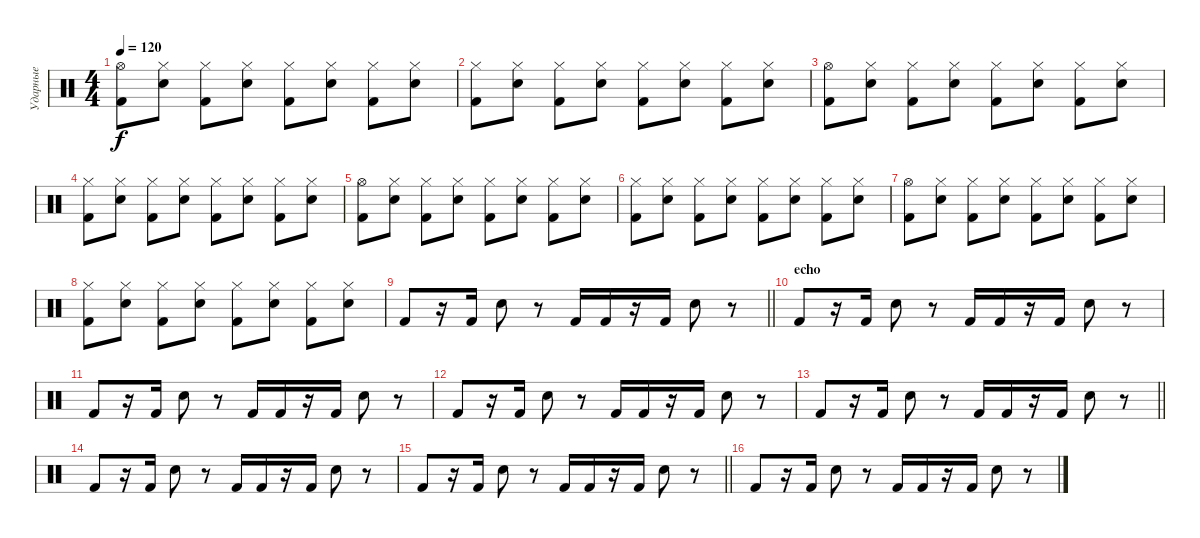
\track ("Ударные" "Ударные") {instrument percussion}
\staff {score}
\articulation defaults
\ts (4 4)
\tempo 120
\clef neutral
\ks c
("Kick (hit) 2" "Hi-Hat (open)").8{dy f} ("Electric Snare (hit)" "Hi-Hat (closed)").8 ("Kick (hit) 2" "Hi-Hat (closed)").8 ("Electric Snare (hit)" "Hi-Hat (closed)").8 ("Kick (hit) 2" "Hi-Hat (closed)").8 ("Electric Snare (hit)" "Hi-Hat (closed)").8 ("Kick (hit) 2" "Hi-Hat (closed)").8 ("Electric Snare (hit)" "Hi-Hat (closed)").8 |
("Kick (hit) 2" "Hi-Hat (closed)").8 ("Electric Snare (hit)" "Hi-Hat (closed)").8 ("Kick (hit) 2" "Hi-Hat (closed)").8 ("Electric Snare (hit)" "Hi-Hat (closed)").8 ("Kick (hit) 2" "Hi-Hat (closed)").8 ("Electric Snare (hit)" "Hi-Hat (closed)").8 ("Kick (hit) 2" "Hi-Hat (closed)").8 ("Electric Snare (hit)" "Hi-Hat (closed)").8 |
("Kick (hit) 2" "Hi-Hat (open)").8 ("Electric Snare (hit)" "Hi-Hat (closed)").8 ("Kick (hit) 2" "Hi-Hat (closed)").8 ("Electric Snare (hit)" "Hi-Hat (closed)").8 ("Kick (hit) 2" "Hi-Hat (closed)").8 ("Electric Snare (hit)" "Hi-Hat (closed)").8 ("Kick (hit) 2" "Hi-Hat (closed)").8 ("Electric Snare (hit)" "Hi-Hat (closed)").8 |
("Kick (hit) 2" "Hi-Hat (closed)").8 ("Electric Snare (hit)" "Hi-Hat (closed)").8 ("Kick (hit) 2" "Hi-Hat (closed)").8 ("Electric Snare (hit)" "Hi-Hat (closed)").8 ("Kick (hit) 2" "Hi-Hat (closed)").8 ("Electric Snare (hit)" "Hi-Hat (closed)").8 ("Kick (hit) 2" "Hi-Hat (closed)").8 ("Electric Snare (hit)" "Hi-Hat (closed)").8 |
("Kick (hit) 2" "Hi-Hat (open)").8 ("Electric Snare (hit)" "Hi-Hat (closed)").8 ("Kick (hit) 2" "Hi-Hat (closed)").8 ("Electric Snare (hit)" "Hi-Hat (closed)").8 ("Kick (hit) 2" "Hi-Hat (closed)").8 ("Electric Snare (hit)" "Hi-Hat (closed)").8 ("Kick (hit) 2" "Hi-Hat (closed)").8 ("Electric Snare (hit)" "Hi-Hat (closed)").8 |
("Kick (hit) 2" "Hi-Hat (closed)").8 ("Electric Snare (hit)" "Hi-Hat (closed)").8 ("Kick (hit) 2" "Hi-Hat (closed)").8 ("Electric Snare (hit)" "Hi-Hat (closed)").8 ("Kick (hit) 2" "Hi-Hat (closed)").8 ("Electric Snare (hit)" "Hi-Hat (closed)").8 ("Kick (hit) 2" "Hi-Hat (closed)").8 ("Electric Snare (hit)" "Hi-Hat (closed)").8 |
("Kick (hit) 2" "Hi-Hat (open)").8 ("Electric Snare (hit)" "Hi-Hat (closed)").8 ("Kick (hit) 2" "Hi-Hat (closed)").8 ("Electric Snare (hit)" "Hi-Hat (closed)").8 ("Kick (hit) 2" "Hi-Hat (closed)").8 ("Electric Snare (hit)" "Hi-Hat (closed)").8 ("Kick (hit) 2" "Hi-Hat (closed)").8 ("Electric Snare (hit)" "Hi-Hat (closed)").8 |
("Kick (hit) 2" "Hi-Hat (closed)").8 ("Electric Snare (hit)" "Hi-Hat (closed)").8 ("Kick (hit) 2" "Hi-Hat (closed)").8 ("Electric Snare (hit)" "Hi-Hat (closed)").8 ("Kick (hit) 2" "Hi-Hat (closed)").8 ("Electric Snare (hit)" "Hi-Hat (closed)").8 ("Kick (hit) 2" "Hi-Hat (closed)").8 ("Electric Snare (hit)" "Hi-Hat (closed)").8 |
\barLineRight lightlight "Kick (hit) 2".8
r.16 "Kick (hit) 2".16 "Snare (hit) 2".8 r.8 "Kick (hit) 2".16 "Kick (hit) 2".16 r.16 "Kick (hit) 2".16 "Snare (hit) 2".8 r.8 |
\section ("" "echo")
"Kick (hit) 2".8 r.16 "Kick (hit) 2".16 "Snare (hit) 2".8 r.8 "Kick (hit) 2".16 "Kick (hit) 2".16 r.16 "Kick (hit) 2".16 "Snare (hit) 2".8 r.8 |
"Kick (hit) 2".8 r.16 "Kick (hit) 2".16 "Snare (hit) 2".8 r.8 "Kick (hit) 2".16 "Kick (hit) 2".16 r.16 "Kick (hit) 2".16 "Snare (hit) 2".8 r.8 |
"Kick (hit) 2".8 r.16 "Kick (hit) 2".16 "Snare (hit) 2".8 r.8 "Kick (hit) 2".16 "Kick (hit) 2".16 r.16 "Kick (hit) 2".16 "Snare (hit) 2".8 r.8 |
\barLineRight lightlight "Kick (hit) 2".8
r.16 "Kick (hit) 2".16 "Snare (hit) 2".8 r.8 "Kick (hit) 2".16 "Kick (hit) 2".16 r.16 "Kick (hit) 2".16 "Snare (hit) 2".8 r.8 |
"Kick (hit) 2".8 r.16 "Kick (hit) 2".16 "Snare (hit) 2".8 r.8 "Kick (hit) 2".16 "Kick (hit) 2".16 r.16 "Kick (hit) 2".16 "Snare (hit) 2".8 r.8 |
\barLineRight lightlight "Kick (hit) 2".8
r.16 "Kick (hit) 2".16 "Snare (hit) 2".8 r.8 "Kick (hit) 2".16 "Kick (hit) 2".16 r.16 "Kick (hit) 2".16 "Snare (hit) 2".8 r.8 |
"Kick (hit) 2".8 r.16 "Kick (hit) 2".16 "Snare (hit) 2".8 r.8 "Kick (hit) 2".16 "Kick (hit) 2".16 r.16 "Kick (hit) 2".16 "Snare (hit) 2".8 r.8
